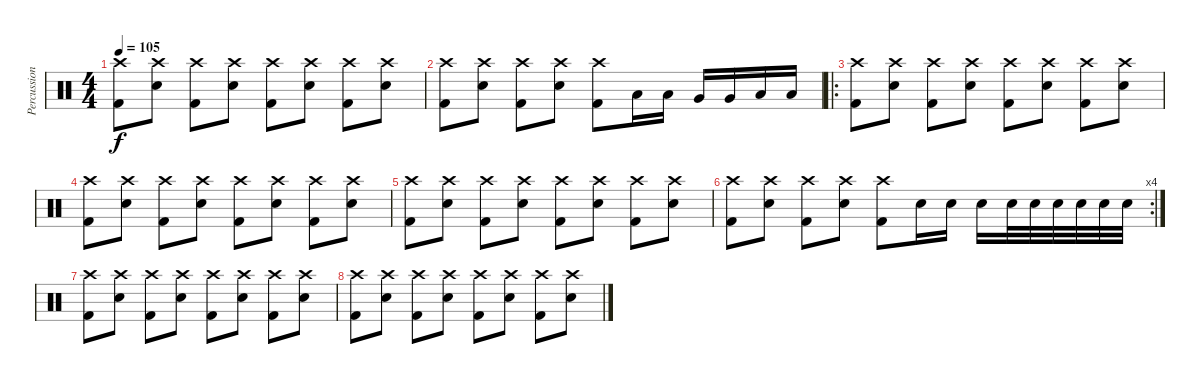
\track ("Percussioni" "Percussion") {instrument percussion}
\staff {score}
\articulation defaults
\ts (4 4)
\tempo 105
\clef neutral
\ks c
("Crash high (hit)" "Kick (hit) 2").8{dy f} ("Crash high (hit)" "Electric Snare (hit)").8 ("Crash high (hit)" "Kick (hit) 2").8 ("Crash high (hit)" "Electric Snare (hit)").8 ("Crash high (hit)" "Kick (hit) 2").8 ("Crash high (hit)" "Electric Snare (hit)").8 ("Crash high (hit)" "Kick (hit) 2").8 ("Crash high (hit)" "Electric Snare (hit)").8 |
("Crash high (hit)" "Kick (hit) 2").8 ("Crash high (hit)" "Electric Snare (hit)").8 ("Crash high (hit)" "Kick (hit) 2").8 ("Crash high (hit)" "Electric Snare (hit)").8 ("Crash high (hit)" "Kick (hit) 2").8 "Low Tom (hit)".16 "Low Tom (hit)".16 "Very Low Tom (hit)".16 "Very Low Tom (hit)".16 "Low Floor Tom (hit)".16 "Low Floor Tom (hit)".16 |
\ro
("Crash high (hit)" "Kick (hit) 2").8 ("Crash high (hit)" "Electric Snare (hit)").8 ("Crash high (hit)" "Kick (hit) 2").8 ("Crash high (hit)" "Electric Snare (hit)").8 ("Crash high (hit)" "Kick (hit) 2").8 ("Crash high (hit)" "Electric Snare (hit)").8 ("Crash high (hit)" "Kick (hit) 2").8 ("Crash high (hit)" "Electric Snare (hit)").8 |
("Crash high (hit)" "Kick (hit) 2").8 ("Crash high (hit)" "Electric Snare (hit)").8 ("Crash high (hit)" "Kick (hit) 2").8 ("Crash high (hit)" "Electric Snare (hit)").8 ("Crash high (hit)" "Kick (hit) 2").8 ("Crash high (hit)" "Electric Snare (hit)").8 ("Crash high (hit)" "Kick (hit) 2").8 ("Crash high (hit)" "Electric Snare (hit)").8 |
("Crash high (hit)" "Kick (hit) 2").8 ("Crash high (hit)" "Electric Snare (hit)").8 ("Crash high (hit)" "Kick (hit) 2").8 ("Crash high (hit)" "Electric Snare (hit)").8 ("Crash high (hit)" "Kick (hit) 2").8 ("Crash high (hit)" "Electric Snare (hit)").8 ("Crash high (hit)" "Kick (hit) 2").8 ("Crash high (hit)" "Electric Snare (hit)").8 |
\rc 4
("Crash high (hit)" "Kick (hit) 2").8 ("Crash high (hit)" "Electric Snare (hit)").8 ("Crash high (hit)" "Kick (hit) 2").8 ("Crash high (hit)" "Electric Snare (hit)").8 ("Crash high (hit)" "Kick (hit) 2").8 "Electric Snare (hit)".16 "Electric Snare (hit)".16 "Electric Snare (hit)".16 "Electric Snare (hit)".32 "Electric Snare (hit)".32 "Electric Snare (hit)".32 "Electric Snare (hit)".32 "Electric Snare (hit)".32 "Electric Snare (hit)".32 |
("Crash high (hit)" "Kick (hit) 2").8 ("Crash high (hit)" "Electric Snare (hit)").8 ("Crash high (hit)" "Kick (hit) 2").8 ("Crash high (hit)" "Electric Snare (hit)").8 ("Crash high (hit)" "Kick (hit) 2").8 ("Crash high (hit)" "Electric Snare (hit)").8 ("Crash high (hit)" "Kick (hit) 2").8 ("Crash high (hit)" "Electric Snare (hit)").8 |
("Crash high (hit)" "Kick (hit) 2").8 ("Crash high (hit)" "Electric Snare (hit)").8 ("Crash high (hit)" "Kick (hit) 2").8 ("Crash high (hit)" "Electric Snare (hit)").8 ("Crash high (hit)" "Kick (hit) 2").8 ("Crash high (hit)" "Electric Snare (hit)").8 ("Crash high (hit)" "Kick (hit) 2").8 ("Crash high (hit)" "Electric Snare (hit)").8
